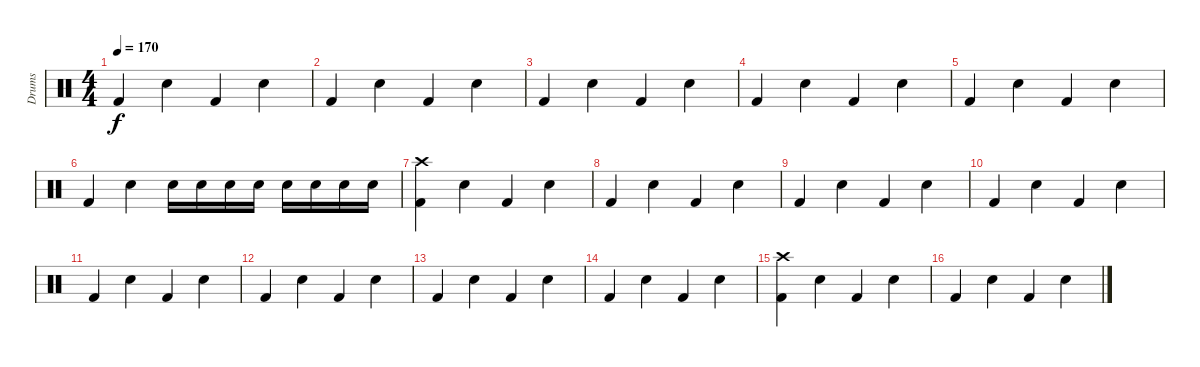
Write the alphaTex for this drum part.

\track ("Drums" "Drums") {instrument percussion}
\staff {score}
\articulation defaults
\ts (4 4)
\tempo 170
\clef neutral
\ks c "Kick (hit) 2".4{dy f} "Snare (hit) 2".4 "Kick (hit) 2".4 "Snare (hit) 2".4
|
"Kick (hit) 2".4 "Snare (hit) 2".4 "Kick (hit) 2".4 "Snare (hit) 2".4 |
"Kick (hit) 2".4 "Snare (hit) 2".4 "Kick (hit) 2".4 "Snare (hit) 2".4 |
"Kick (hit) 2".4 "Snare (hit) 2".4 "Kick (hit) 2".4 "Snare (hit) 2".4 |
"Kick (hit) 2".4 "Snare (hit) 2".4 "Kick (hit) 2".4 "Snare (hit) 2".4 |
"Kick (hit) 2".4 "Snare (hit) 2".4 "Snare (hit) 2".16 "Snare (hit) 2".16 "Snare (hit) 2".16 "Snare (hit) 2".16 "Snare (hit) 2".16 "Snare (hit) 2".16 "Snare (hit) 2".16 "Snare (hit) 2".16 |
("Crash high (hit)" "Kick (hit) 2").4 "Snare (hit) 2".4 "Kick (hit) 2".4 "Snare (hit) 2".4 |
"Kick (hit) 2".4 "Snare (hit) 2".4 "Kick (hit) 2".4 "Snare (hit) 2".4 |
"Kick (hit) 2".4 "Snare (hit) 2".4 "Kick (hit) 2".4 "Snare (hit) 2".4 |
"Kick (hit) 2".4 "Snare (hit) 2".4 "Kick (hit) 2".4 "Snare (hit) 2".4 |
"Kick (hit) 2".4 "Snare (hit) 2".4 "Kick (hit) 2".4 "Snare (hit) 2".4 |
"Kick (hit) 2".4 "Snare (hit) 2".4 "Kick (hit) 2".4 "Snare (hit) 2".4 |
"Kick (hit) 2".4 "Snare (hit) 2".4 "Kick (hit) 2".4 "Snare (hit) 2".4 |
"Kick (hit) 2".4 "Snare (hit) 2".4 "Kick (hit) 2".4 "Snare (hit) 2".4 |
("Crash high (hit)" "Kick (hit) 2").4 "Snare (hit) 2".4 "Kick (hit) 2".4 "Snare (hit) 2".4 |
"Kick (hit) 2".4 "Snare (hit) 2".4 "Kick (hit) 2".4 "Snare (hit) 2".4
